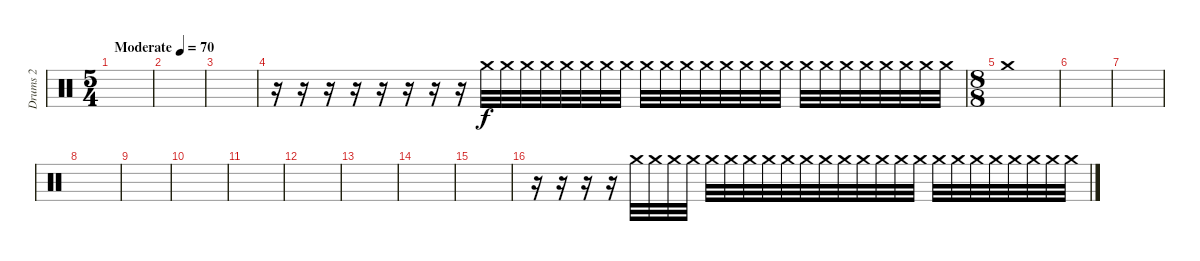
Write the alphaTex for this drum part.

\track ("Drums 2" "Drums 2") {instrument percussion}
\staff {score}
\articulation defaults
\ts (5 4)
\tempo (70 "Moderate")
\clef neutral
\ks c
|
|
|
r.16 r.16 r.16 r.16 r.16 r.16 r.16 r.16 "Crash medium (hit)".32{volume 13} "Crash medium (hit)".32 "Crash medium (hit)".32 "Crash medium (hit)".32 "Crash medium (hit)".32 "Crash medium (hit)".32 "Crash medium (hit)".32 "Crash medium (hit)".32 "Crash medium (hit)".32 "Crash medium (hit)".32 "Crash medium (hit)".32 "Crash medium (hit)".32 "Crash medium (hit)".32 "Crash medium (hit)".32 "Crash medium (hit)".32 "Crash medium (hit)".32 "Crash medium (hit)".32 "Crash medium (hit)".32 "Crash medium (hit)".32 "Crash medium (hit)".32 "Crash medium (hit)".32 "Crash medium (hit)".32 "Crash medium (hit)".32 "Crash medium (hit)".32 |
\ts (8 8)
"Crash medium (hit)".1 |
|
|
|
|
|
|
|
|
|
|
r.16 r.16 r.16 r.16 "Crash medium (hit)".32{volume 16} "Crash medium (hit)".32 "Crash medium (hit)".32 "Crash medium (hit)".32 "Crash medium (hit)".32 "Crash medium (hit)".32 "Crash medium (hit)".32 "Crash medium (hit)".32 "Crash medium (hit)".32 "Crash medium (hit)".32 "Crash medium (hit)".32 "Crash medium (hit)".32 "Crash medium (hit)".32 "Crash medium (hit)".32 "Crash medium (hit)".32 "Crash medium (hit)".32 "Crash medium (hit)".32 "Crash medium (hit)".32 "Crash medium (hit)".32 "Crash medium (hit)".32 "Crash medium (hit)".32 "Crash medium (hit)".32 "Crash medium (hit)".32 "Crash medium (hit)".32
